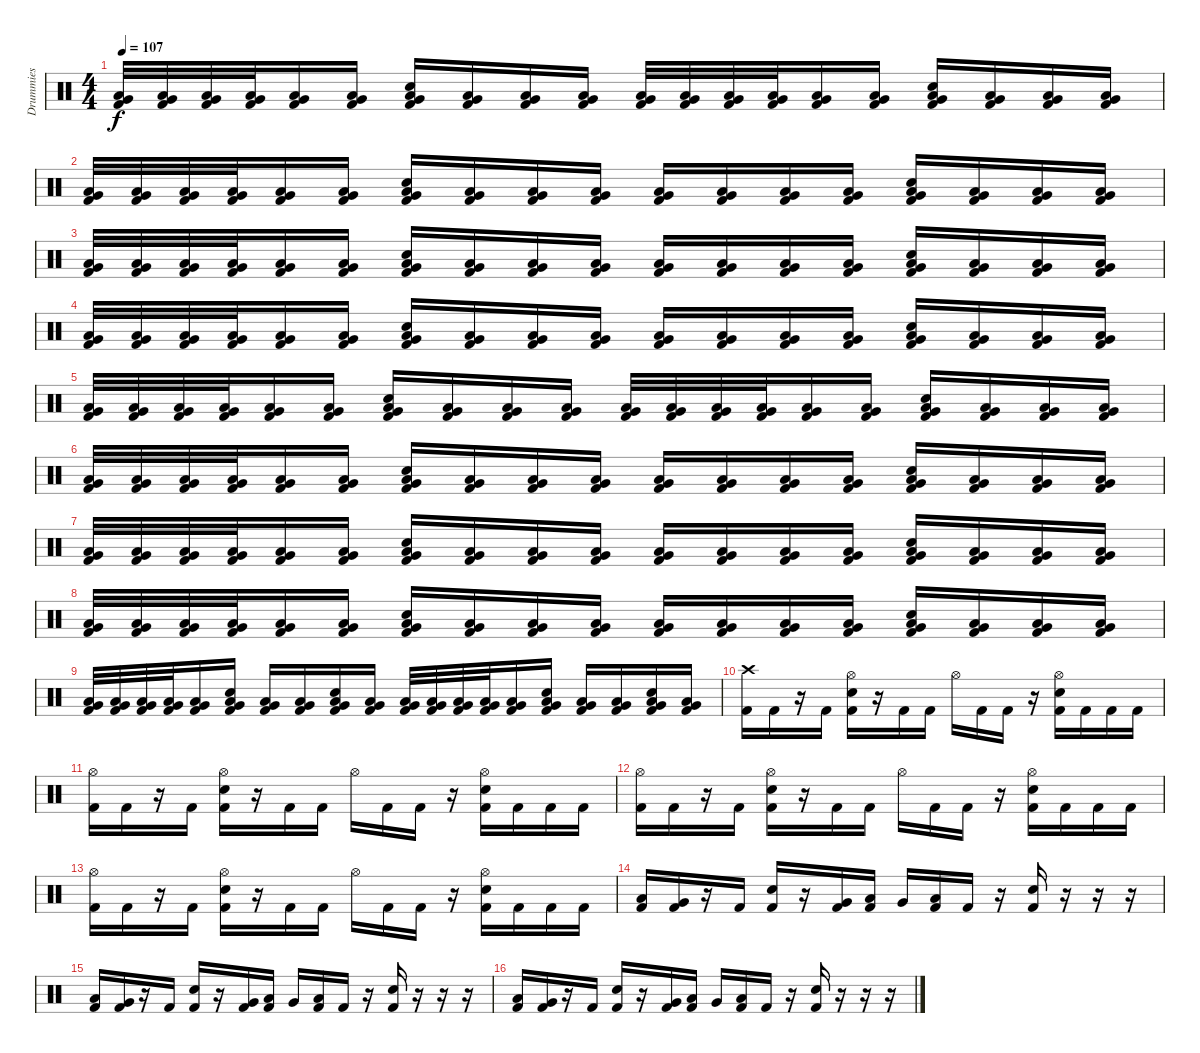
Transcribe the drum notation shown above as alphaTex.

\track ("Drummies" "Drummies") {instrument percussion}
\staff {score}
\articulation defaults
\ts (4 4)
\tempo 107
\clef neutral
\ks c
("Very Low Tom (hit)" "Low Floor Tom (hit)" "Kick (hit) 2").32{dy f} ("Very Low Tom (hit)" "Low Floor Tom (hit)" "Kick (hit) 2").32 ("Very Low Tom (hit)" "Low Floor Tom (hit)" "Kick (hit) 2").32 ("Very Low Tom (hit)" "Low Floor Tom (hit)" "Kick (hit) 2").32 ("Very Low Tom (hit)" "Low Floor Tom (hit)" "Kick (hit) 2").16 ("Very Low Tom (hit)" "Low Floor Tom (hit)" "Kick (hit) 2").16 ("Electric Snare (hit)" "Very Low Tom (hit)" "Low Floor Tom (hit)" "Kick (hit) 2").16 ("Very Low Tom (hit)" "Low Floor Tom (hit)" "Kick (hit) 2").16 ("Very Low Tom (hit)" "Low Floor Tom (hit)" "Kick (hit) 2").16 ("Very Low Tom (hit)" "Low Floor Tom (hit)" "Kick (hit) 2").16 ("Very Low Tom (hit)" "Low Floor Tom (hit)" "Kick (hit) 2").32 ("Very Low Tom (hit)" "Low Floor Tom (hit)" "Kick (hit) 2").32 ("Very Low Tom (hit)" "Low Floor Tom (hit)" "Kick (hit) 2").32 ("Very Low Tom (hit)" "Low Floor Tom (hit)" "Kick (hit) 2").32 ("Very Low Tom (hit)" "Low Floor Tom (hit)" "Kick (hit) 2").16 ("Very Low Tom (hit)" "Low Floor Tom (hit)" "Kick (hit) 2").16 ("Electric Snare (hit)" "Very Low Tom (hit)" "Low Floor Tom (hit)" "Kick (hit) 2").16 ("Very Low Tom (hit)" "Low Floor Tom (hit)" "Kick (hit) 2").16 ("Very Low Tom (hit)" "Low Floor Tom (hit)" "Kick (hit) 2").16 ("Very Low Tom (hit)" "Low Floor Tom (hit)" "Kick (hit) 2").16 |
("Very Low Tom (hit)" "Low Floor Tom (hit)" "Kick (hit) 2").32 ("Very Low Tom (hit)" "Low Floor Tom (hit)" "Kick (hit) 2").32 ("Very Low Tom (hit)" "Low Floor Tom (hit)" "Kick (hit) 2").32 ("Very Low Tom (hit)" "Low Floor Tom (hit)" "Kick (hit) 2").32 ("Very Low Tom (hit)" "Low Floor Tom (hit)" "Kick (hit) 2").16 ("Very Low Tom (hit)" "Low Floor Tom (hit)" "Kick (hit) 2").16 ("Electric Snare (hit)" "Very Low Tom (hit)" "Low Floor Tom (hit)" "Kick (hit) 2").16 ("Very Low Tom (hit)" "Low Floor Tom (hit)" "Kick (hit) 2").16 ("Very Low Tom (hit)" "Low Floor Tom (hit)" "Kick (hit) 2").16 ("Very Low Tom (hit)" "Low Floor Tom (hit)" "Kick (hit) 2").16 ("Very Low Tom (hit)" "Low Floor Tom (hit)" "Kick (hit) 2").16 ("Very Low Tom (hit)" "Low Floor Tom (hit)" "Kick (hit) 2").16 ("Very Low Tom (hit)" "Low Floor Tom (hit)" "Kick (hit) 2").16 ("Very Low Tom (hit)" "Low Floor Tom (hit)" "Kick (hit) 2").16 ("Electric Snare (hit)" "Very Low Tom (hit)" "Low Floor Tom (hit)" "Kick (hit) 2").16 ("Very Low Tom (hit)" "Low Floor Tom (hit)" "Kick (hit) 2").16 ("Very Low Tom (hit)" "Low Floor Tom (hit)" "Kick (hit) 2").16 ("Very Low Tom (hit)" "Low Floor Tom (hit)" "Kick (hit) 2").16 |
("Very Low Tom (hit)" "Low Floor Tom (hit)" "Kick (hit) 2").32 ("Very Low Tom (hit)" "Low Floor Tom (hit)" "Kick (hit) 2").32 ("Very Low Tom (hit)" "Low Floor Tom (hit)" "Kick (hit) 2").32 ("Very Low Tom (hit)" "Low Floor Tom (hit)" "Kick (hit) 2").32 ("Very Low Tom (hit)" "Low Floor Tom (hit)" "Kick (hit) 2").16 ("Very Low Tom (hit)" "Low Floor Tom (hit)" "Kick (hit) 2").16 ("Electric Snare (hit)" "Very Low Tom (hit)" "Low Floor Tom (hit)" "Kick (hit) 2").16 ("Very Low Tom (hit)" "Low Floor Tom (hit)" "Kick (hit) 2").16 ("Very Low Tom (hit)" "Low Floor Tom (hit)" "Kick (hit) 2").16 ("Very Low Tom (hit)" "Low Floor Tom (hit)" "Kick (hit) 2").16 ("Very Low Tom (hit)" "Low Floor Tom (hit)" "Kick (hit) 2").16 ("Very Low Tom (hit)" "Low Floor Tom (hit)" "Kick (hit) 2").16 ("Very Low Tom (hit)" "Low Floor Tom (hit)" "Kick (hit) 2").16 ("Very Low Tom (hit)" "Low Floor Tom (hit)" "Kick (hit) 2").16 ("Electric Snare (hit)" "Very Low Tom (hit)" "Low Floor Tom (hit)" "Kick (hit) 2").16 ("Very Low Tom (hit)" "Low Floor Tom (hit)" "Kick (hit) 2").16 ("Very Low Tom (hit)" "Low Floor Tom (hit)" "Kick (hit) 2").16 ("Very Low Tom (hit)" "Low Floor Tom (hit)" "Kick (hit) 2").16 |
("Very Low Tom (hit)" "Low Floor Tom (hit)" "Kick (hit) 2").32 ("Very Low Tom (hit)" "Low Floor Tom (hit)" "Kick (hit) 2").32 ("Very Low Tom (hit)" "Low Floor Tom (hit)" "Kick (hit) 2").32 ("Very Low Tom (hit)" "Low Floor Tom (hit)" "Kick (hit) 2").32 ("Very Low Tom (hit)" "Low Floor Tom (hit)" "Kick (hit) 2").16 ("Very Low Tom (hit)" "Low Floor Tom (hit)" "Kick (hit) 2").16 ("Electric Snare (hit)" "Very Low Tom (hit)" "Low Floor Tom (hit)" "Kick (hit) 2").16 ("Very Low Tom (hit)" "Low Floor Tom (hit)" "Kick (hit) 2").16 ("Very Low Tom (hit)" "Low Floor Tom (hit)" "Kick (hit) 2").16 ("Very Low Tom (hit)" "Low Floor Tom (hit)" "Kick (hit) 2").16 ("Very Low Tom (hit)" "Low Floor Tom (hit)" "Kick (hit) 2").16 ("Very Low Tom (hit)" "Low Floor Tom (hit)" "Kick (hit) 2").16 ("Very Low Tom (hit)" "Low Floor Tom (hit)" "Kick (hit) 2").16 ("Very Low Tom (hit)" "Low Floor Tom (hit)" "Kick (hit) 2").16 ("Electric Snare (hit)" "Very Low Tom (hit)" "Low Floor Tom (hit)" "Kick (hit) 2").16 ("Very Low Tom (hit)" "Low Floor Tom (hit)" "Kick (hit) 2").16 ("Very Low Tom (hit)" "Low Floor Tom (hit)" "Kick (hit) 2").16 ("Very Low Tom (hit)" "Low Floor Tom (hit)" "Kick (hit) 2").16 |
("Very Low Tom (hit)" "Low Floor Tom (hit)" "Kick (hit) 2").32 ("Very Low Tom (hit)" "Low Floor Tom (hit)" "Kick (hit) 2").32 ("Very Low Tom (hit)" "Low Floor Tom (hit)" "Kick (hit) 2").32 ("Very Low Tom (hit)" "Low Floor Tom (hit)" "Kick (hit) 2").32 ("Very Low Tom (hit)" "Low Floor Tom (hit)" "Kick (hit) 2").16 ("Very Low Tom (hit)" "Low Floor Tom (hit)" "Kick (hit) 2").16 ("Electric Snare (hit)" "Very Low Tom (hit)" "Low Floor Tom (hit)" "Kick (hit) 2").16 ("Very Low Tom (hit)" "Low Floor Tom (hit)" "Kick (hit) 2").16 ("Very Low Tom (hit)" "Low Floor Tom (hit)" "Kick (hit) 2").16 ("Very Low Tom (hit)" "Low Floor Tom (hit)" "Kick (hit) 2").16 ("Very Low Tom (hit)" "Low Floor Tom (hit)" "Kick (hit) 2").32 ("Very Low Tom (hit)" "Low Floor Tom (hit)" "Kick (hit) 2").32 ("Very Low Tom (hit)" "Low Floor Tom (hit)" "Kick (hit) 2").32 ("Very Low Tom (hit)" "Low Floor Tom (hit)" "Kick (hit) 2").32 ("Very Low Tom (hit)" "Low Floor Tom (hit)" "Kick (hit) 2").16 ("Very Low Tom (hit)" "Low Floor Tom (hit)" "Kick (hit) 2").16 ("Electric Snare (hit)" "Very Low Tom (hit)" "Low Floor Tom (hit)" "Kick (hit) 2").16 ("Very Low Tom (hit)" "Low Floor Tom (hit)" "Kick (hit) 2").16 ("Very Low Tom (hit)" "Low Floor Tom (hit)" "Kick (hit) 2").16 ("Very Low Tom (hit)" "Low Floor Tom (hit)" "Kick (hit) 2").16 |
("Very Low Tom (hit)" "Low Floor Tom (hit)" "Kick (hit) 2").32 ("Very Low Tom (hit)" "Low Floor Tom (hit)" "Kick (hit) 2").32 ("Very Low Tom (hit)" "Low Floor Tom (hit)" "Kick (hit) 2").32 ("Very Low Tom (hit)" "Low Floor Tom (hit)" "Kick (hit) 2").32 ("Very Low Tom (hit)" "Low Floor Tom (hit)" "Kick (hit) 2").16 ("Very Low Tom (hit)" "Low Floor Tom (hit)" "Kick (hit) 2").16 ("Electric Snare (hit)" "Very Low Tom (hit)" "Low Floor Tom (hit)" "Kick (hit) 2").16 ("Very Low Tom (hit)" "Low Floor Tom (hit)" "Kick (hit) 2").16 ("Very Low Tom (hit)" "Low Floor Tom (hit)" "Kick (hit) 2").16 ("Very Low Tom (hit)" "Low Floor Tom (hit)" "Kick (hit) 2").16 ("Very Low Tom (hit)" "Low Floor Tom (hit)" "Kick (hit) 2").16 ("Very Low Tom (hit)" "Low Floor Tom (hit)" "Kick (hit) 2").16 ("Very Low Tom (hit)" "Low Floor Tom (hit)" "Kick (hit) 2").16 ("Very Low Tom (hit)" "Low Floor Tom (hit)" "Kick (hit) 2").16 ("Electric Snare (hit)" "Very Low Tom (hit)" "Low Floor Tom (hit)" "Kick (hit) 2").16 ("Very Low Tom (hit)" "Low Floor Tom (hit)" "Kick (hit) 2").16 ("Very Low Tom (hit)" "Low Floor Tom (hit)" "Kick (hit) 2").16 ("Very Low Tom (hit)" "Low Floor Tom (hit)" "Kick (hit) 2").16 |
("Very Low Tom (hit)" "Low Floor Tom (hit)" "Kick (hit) 2").32 ("Very Low Tom (hit)" "Low Floor Tom (hit)" "Kick (hit) 2").32 ("Very Low Tom (hit)" "Low Floor Tom (hit)" "Kick (hit) 2").32 ("Very Low Tom (hit)" "Low Floor Tom (hit)" "Kick (hit) 2").32 ("Very Low Tom (hit)" "Low Floor Tom (hit)" "Kick (hit) 2").16 ("Very Low Tom (hit)" "Low Floor Tom (hit)" "Kick (hit) 2").16 ("Electric Snare (hit)" "Very Low Tom (hit)" "Low Floor Tom (hit)" "Kick (hit) 2").16 ("Very Low Tom (hit)" "Low Floor Tom (hit)" "Kick (hit) 2").16 ("Very Low Tom (hit)" "Low Floor Tom (hit)" "Kick (hit) 2").16 ("Very Low Tom (hit)" "Low Floor Tom (hit)" "Kick (hit) 2").16 ("Very Low Tom (hit)" "Low Floor Tom (hit)" "Kick (hit) 2").16 ("Very Low Tom (hit)" "Low Floor Tom (hit)" "Kick (hit) 2").16 ("Very Low Tom (hit)" "Low Floor Tom (hit)" "Kick (hit) 2").16 ("Very Low Tom (hit)" "Low Floor Tom (hit)" "Kick (hit) 2").16 ("Electric Snare (hit)" "Very Low Tom (hit)" "Low Floor Tom (hit)" "Kick (hit) 2").16 ("Very Low Tom (hit)" "Low Floor Tom (hit)" "Kick (hit) 2").16 ("Very Low Tom (hit)" "Low Floor Tom (hit)" "Kick (hit) 2").16 ("Very Low Tom (hit)" "Low Floor Tom (hit)" "Kick (hit) 2").16 |
("Very Low Tom (hit)" "Low Floor Tom (hit)" "Kick (hit) 2").32 ("Very Low Tom (hit)" "Low Floor Tom (hit)" "Kick (hit) 2").32 ("Very Low Tom (hit)" "Low Floor Tom (hit)" "Kick (hit) 2").32 ("Very Low Tom (hit)" "Low Floor Tom (hit)" "Kick (hit) 2").32 ("Very Low Tom (hit)" "Low Floor Tom (hit)" "Kick (hit) 2").16 ("Very Low Tom (hit)" "Low Floor Tom (hit)" "Kick (hit) 2").16 ("Electric Snare (hit)" "Very Low Tom (hit)" "Low Floor Tom (hit)" "Kick (hit) 2").16 ("Very Low Tom (hit)" "Low Floor Tom (hit)" "Kick (hit) 2").16 ("Very Low Tom (hit)" "Low Floor Tom (hit)" "Kick (hit) 2").16 ("Very Low Tom (hit)" "Low Floor Tom (hit)" "Kick (hit) 2").16 ("Very Low Tom (hit)" "Low Floor Tom (hit)" "Kick (hit) 2").16 ("Very Low Tom (hit)" "Low Floor Tom (hit)" "Kick (hit) 2").16 ("Very Low Tom (hit)" "Low Floor Tom (hit)" "Kick (hit) 2").16 ("Very Low Tom (hit)" "Low Floor Tom (hit)" "Kick (hit) 2").16 ("Electric Snare (hit)" "Very Low Tom (hit)" "Low Floor Tom (hit)" "Kick (hit) 2").16 ("Very Low Tom (hit)" "Low Floor Tom (hit)" "Kick (hit) 2").16 ("Very Low Tom (hit)" "Low Floor Tom (hit)" "Kick (hit) 2").16 ("Very Low Tom (hit)" "Low Floor Tom (hit)" "Kick (hit) 2").16 |
("Very Low Tom (hit)" "Low Floor Tom (hit)" "Kick (hit) 2").32 ("Very Low Tom (hit)" "Low Floor Tom (hit)" "Kick (hit) 2").32 ("Very Low Tom (hit)" "Low Floor Tom (hit)" "Kick (hit) 2").32 ("Very Low Tom (hit)" "Low Floor Tom (hit)" "Kick (hit) 2").32 ("Very Low Tom (hit)" "Low Floor Tom (hit)" "Kick (hit) 2").16 ("Electric Snare (hit)" "Very Low Tom (hit)" "Low Floor Tom (hit)" "Kick (hit) 2").16 ("Very Low Tom (hit)" "Low Floor Tom (hit)" "Kick (hit) 2").16 ("Very Low Tom (hit)" "Low Floor Tom (hit)" "Kick (hit) 2").16 ("Electric Snare (hit)" "Very Low Tom (hit)" "Low Floor Tom (hit)" "Kick (hit) 2").16 ("Very Low Tom (hit)" "Low Floor Tom (hit)" "Kick (hit) 2").16 ("Very Low Tom (hit)" "Low Floor Tom (hit)" "Kick (hit) 2").32 ("Very Low Tom (hit)" "Low Floor Tom (hit)" "Kick (hit) 2").32 ("Very Low Tom (hit)" "Low Floor Tom (hit)" "Kick (hit) 2").32 ("Very Low Tom (hit)" "Low Floor Tom (hit)" "Kick (hit) 2").32 ("Very Low Tom (hit)" "Low Floor Tom (hit)" "Kick (hit) 2").16 ("Electric Snare (hit)" "Very Low Tom (hit)" "Low Floor Tom (hit)" "Kick (hit) 2").16 ("Very Low Tom (hit)" "Low Floor Tom (hit)" "Kick (hit) 2").16 ("Very Low Tom (hit)" "Low Floor Tom (hit)" "Kick (hit) 2").16 ("Electric Snare (hit)" "Very Low Tom (hit)" "Low Floor Tom (hit)" "Kick (hit) 2").16 ("Very Low Tom (hit)" "Low Floor Tom (hit)" "Kick (hit) 2").16 |
("Crash high (hit)" "Kick (hit) 2").16 "Kick (hit) 2".16 r.16 "Kick (hit) 2".16 ("Hi-Hat (open)" "Electric Snare (hit)" "Kick (hit) 2").16 r.16 "Kick (hit) 2".16 "Kick (hit) 2".16 "Hi-Hat (open)".16 "Kick (hit) 2".16 "Kick (hit) 2".16 r.16 ("Hi-Hat (open)" "Electric Snare (hit)" "Kick (hit) 2").16 "Kick (hit) 2".16 "Kick (hit) 2".16 "Kick (hit) 2".16 |
("Hi-Hat (open)" "Kick (hit) 2").16 "Kick (hit) 2".16 r.16 "Kick (hit) 2".16 ("Hi-Hat (open)" "Electric Snare (hit)" "Kick (hit) 2").16 r.16 "Kick (hit) 2".16 "Kick (hit) 2".16 "Hi-Hat (open)".16 "Kick (hit) 2".16 "Kick (hit) 2".16 r.16 ("Hi-Hat (open)" "Electric Snare (hit)" "Kick (hit) 2").16 "Kick (hit) 2".16 "Kick (hit) 2".16 "Kick (hit) 2".16 |
("Hi-Hat (open)" "Kick (hit) 2").16 "Kick (hit) 2".16 r.16 "Kick (hit) 2".16 ("Hi-Hat (open)" "Electric Snare (hit)" "Kick (hit) 2").16 r.16 "Kick (hit) 2".16 "Kick (hit) 2".16 "Hi-Hat (open)".16 "Kick (hit) 2".16 "Kick (hit) 2".16 r.16 ("Hi-Hat (open)" "Electric Snare (hit)" "Kick (hit) 2").16 "Kick (hit) 2".16 "Kick (hit) 2".16 "Kick (hit) 2".16 |
("Hi-Hat (open)" "Kick (hit) 2").16 "Kick (hit) 2".16 r.16 "Kick (hit) 2".16 ("Hi-Hat (open)" "Electric Snare (hit)" "Kick (hit) 2").16 r.16 "Kick (hit) 2".16 "Kick (hit) 2".16 "Hi-Hat (open)".16 "Kick (hit) 2".16 "Kick (hit) 2".16 r.16 ("Hi-Hat (open)" "Electric Snare (hit)" "Kick (hit) 2").16 "Kick (hit) 2".16 "Kick (hit) 2".16 "Kick (hit) 2".16 |
("Low Tom (hit)" "Kick (hit) 2").16 ("Very Low Tom (hit)" "Kick (hit) 2").16 r.16 "Kick (hit) 2".16 ("Electric Snare (hit)" "Kick (hit) 2").16 r.16 ("Very Low Tom (hit)" "Kick (hit) 2").16 ("Low Tom (hit)" "Kick (hit) 2").16 "Very Low Tom (hit)".16 ("Low Floor Tom (hit)" "Kick (hit) 2").16 "Kick (hit) 2".16 r.16 ("Electric Snare (hit)" "Kick (hit) 2").16 r.16 r.16 r.16 |
("Low Tom (hit)" "Kick (hit) 2").16 ("Very Low Tom (hit)" "Kick (hit) 2").16 r.16 "Kick (hit) 2".16 ("Electric Snare (hit)" "Kick (hit) 2").16 r.16 ("Very Low Tom (hit)" "Kick (hit) 2").16 ("Low Tom (hit)" "Kick (hit) 2").16 "Very Low Tom (hit)".16 ("Low Floor Tom (hit)" "Kick (hit) 2").16 "Kick (hit) 2".16 r.16 ("Electric Snare (hit)" "Kick (hit) 2").16 r.16 r.16 r.16 |
("Low Tom (hit)" "Kick (hit) 2").16 ("Very Low Tom (hit)" "Kick (hit) 2").16 r.16 "Kick (hit) 2".16 ("Electric Snare (hit)" "Kick (hit) 2").16 r.16 ("Very Low Tom (hit)" "Kick (hit) 2").16 ("Low Tom (hit)" "Kick (hit) 2").16 "Very Low Tom (hit)".16 ("Low Floor Tom (hit)" "Kick (hit) 2").16 "Kick (hit) 2".16 r.16 ("Electric Snare (hit)" "Kick (hit) 2").16 r.16 r.16 r.16
